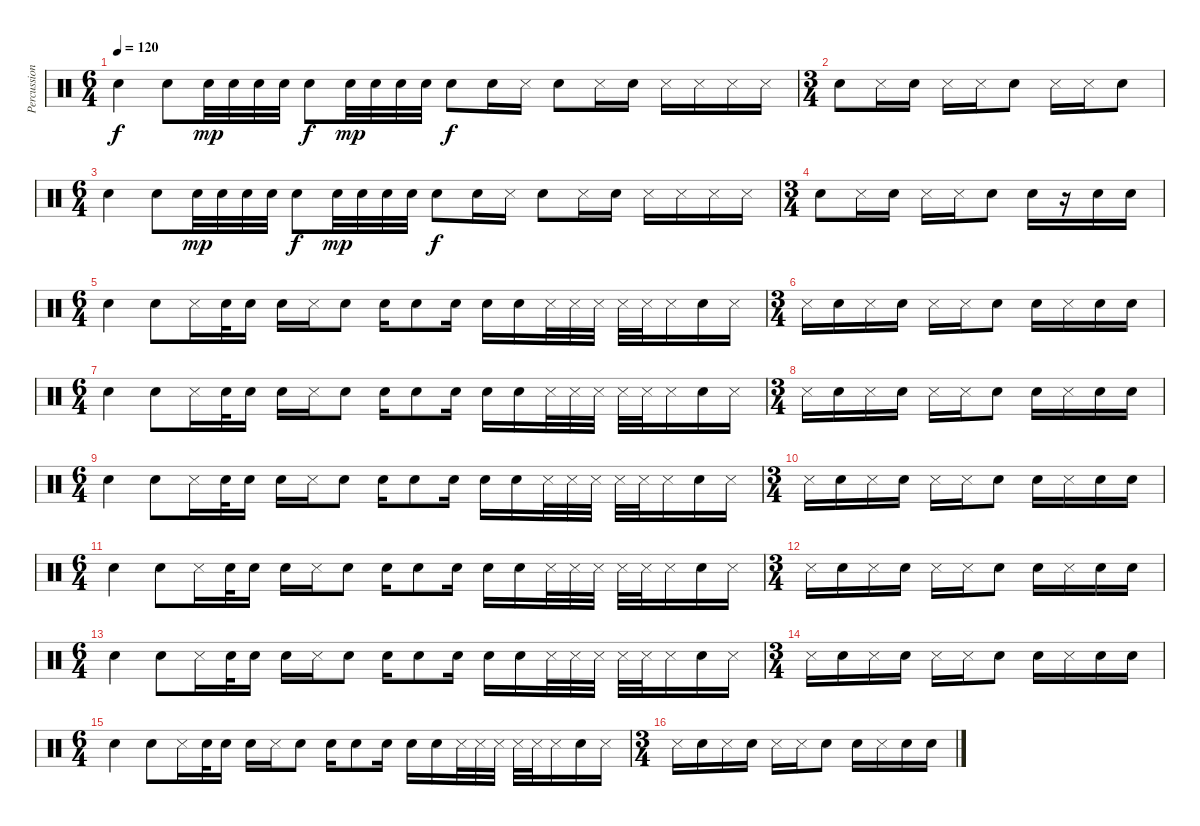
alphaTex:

\track ("Percussions" "Percussion") {instrument percussion}
\staff {score}
\articulation defaults
\ts (6 4)
\tempo 120
\clef neutral
\ks c "Snare (hit) 2".4{dy f} "Snare (hit) 2".8 "Snare (hit) 2".32{dy mp} "Snare (hit) 2".32 "Snare (hit) 2".32 "Snare (hit) 2".32 "Snare (hit) 2".8{dy f} "Snare (hit) 2".32{dy mp} "Snare (hit) 2".32 "Snare (hit) 2".32 "Snare (hit) 2".32 "Snare (hit) 2".8{dy f} "Snare (hit) 2".16 "Metronome (hit)".16 "Snare (hit) 2".8 "Metronome (hit)".16 "Snare (hit) 2".16 "Metronome (hit)".16 "Metronome (hit)".16 "Metronome (hit)".16 "Metronome (hit)".16
|
\ts (3 4)
"Snare (hit) 2".8 "Metronome (hit)".16 "Snare (hit) 2".16 "Metronome (hit)".16 "Metronome (hit)".16 "Snare (hit) 2".8 "Metronome (hit)".16 "Metronome (hit)".16 "Snare (hit) 2".8 |
\ts (6 4)
"Snare (hit) 2".4 "Snare (hit) 2".8 "Snare (hit) 2".32{dy mp} "Snare (hit) 2".32 "Snare (hit) 2".32 "Snare (hit) 2".32 "Snare (hit) 2".8{dy f} "Snare (hit) 2".32{dy mp} "Snare (hit) 2".32 "Snare (hit) 2".32 "Snare (hit) 2".32 "Snare (hit) 2".8{dy f} "Snare (hit) 2".16 "Metronome (hit)".16 "Snare (hit) 2".8 "Metronome (hit)".16 "Snare (hit) 2".16 "Metronome (hit)".16 "Metronome (hit)".16 "Metronome (hit)".16 "Metronome (hit)".16 |
\ts (3 4)
"Snare (hit) 2".8 "Metronome (hit)".16 "Snare (hit) 2".16 "Metronome (hit)".16 "Metronome (hit)".16 "Snare (hit) 2".8 "Snare (hit) 2".16 r.16 "Snare (hit) 2".16 "Snare (hit) 2".16 |
\ts (6 4)
"Snare (hit) 2".4 "Snare (hit) 2".8 "Metronome (hit)".16 "Snare (hit) 2".32 "Snare (hit) 2".16 "Snare (hit) 2".16 "Metronome (hit)".16 "Snare (hit) 2".8 "Snare (hit) 2".16 "Snare (hit) 2".8 "Snare (hit) 2".16 "Snare (hit) 2".16 "Snare (hit) 2".16 "Metronome (hit)".32 "Metronome (hit)".32 "Metronome (hit)".32 "Metronome (hit)".32 "Metronome (hit)".32 "Metronome (hit)".16 "Snare (hit) 2".16 "Metronome (hit)".16 |
\ts (3 4)
"Metronome (hit)".16 "Snare (hit) 2".16 "Metronome (hit)".16 "Snare (hit) 2".16 "Metronome (hit)".16 "Metronome (hit)".16 "Snare (hit) 2".8 "Snare (hit) 2".16 "Metronome (hit)".16 "Snare (hit) 2".16 "Snare (hit) 2".16 |
\ts (6 4)
"Snare (hit) 2".4 "Snare (hit) 2".8 "Metronome (hit)".16 "Snare (hit) 2".32 "Snare (hit) 2".16 "Snare (hit) 2".16 "Metronome (hit)".16 "Snare (hit) 2".8 "Snare (hit) 2".16 "Snare (hit) 2".8 "Snare (hit) 2".16 "Snare (hit) 2".16 "Snare (hit) 2".16 "Metronome (hit)".32 "Metronome (hit)".32 "Metronome (hit)".32 "Metronome (hit)".32 "Metronome (hit)".32 "Metronome (hit)".16 "Snare (hit) 2".16 "Metronome (hit)".16 |
\ts (3 4)
"Metronome (hit)".16 "Snare (hit) 2".16 "Metronome (hit)".16 "Snare (hit) 2".16 "Metronome (hit)".16 "Metronome (hit)".16 "Snare (hit) 2".8 "Snare (hit) 2".16 "Metronome (hit)".16 "Snare (hit) 2".16 "Snare (hit) 2".16 |
\ts (6 4)
"Snare (hit) 2".4 "Snare (hit) 2".8 "Metronome (hit)".16 "Snare (hit) 2".32 "Snare (hit) 2".16 "Snare (hit) 2".16 "Metronome (hit)".16 "Snare (hit) 2".8 "Snare (hit) 2".16 "Snare (hit) 2".8 "Snare (hit) 2".16 "Snare (hit) 2".16 "Snare (hit) 2".16 "Metronome (hit)".32 "Metronome (hit)".32 "Metronome (hit)".32 "Metronome (hit)".32 "Metronome (hit)".32 "Metronome (hit)".16 "Snare (hit) 2".16 "Metronome (hit)".16 |
\ts (3 4)
"Metronome (hit)".16 "Snare (hit) 2".16 "Metronome (hit)".16 "Snare (hit) 2".16 "Metronome (hit)".16 "Metronome (hit)".16 "Snare (hit) 2".8 "Snare (hit) 2".16 "Metronome (hit)".16 "Snare (hit) 2".16 "Snare (hit) 2".16 |
\ts (6 4)
"Snare (hit) 2".4 "Snare (hit) 2".8 "Metronome (hit)".16 "Snare (hit) 2".32 "Snare (hit) 2".16 "Snare (hit) 2".16 "Metronome (hit)".16 "Snare (hit) 2".8 "Snare (hit) 2".16 "Snare (hit) 2".8 "Snare (hit) 2".16 "Snare (hit) 2".16 "Snare (hit) 2".16 "Metronome (hit)".32 "Metronome (hit)".32 "Metronome (hit)".32 "Metronome (hit)".32 "Metronome (hit)".32 "Metronome (hit)".16 "Snare (hit) 2".16 "Metronome (hit)".16 |
\ts (3 4)
"Metronome (hit)".16 "Snare (hit) 2".16 "Metronome (hit)".16 "Snare (hit) 2".16 "Metronome (hit)".16 "Metronome (hit)".16 "Snare (hit) 2".8 "Snare (hit) 2".16 "Metronome (hit)".16 "Snare (hit) 2".16 "Snare (hit) 2".16 |
\ts (6 4)
"Snare (hit) 2".4 "Snare (hit) 2".8 "Metronome (hit)".16 "Snare (hit) 2".32 "Snare (hit) 2".16 "Snare (hit) 2".16 "Metronome (hit)".16 "Snare (hit) 2".8 "Snare (hit) 2".16 "Snare (hit) 2".8 "Snare (hit) 2".16 "Snare (hit) 2".16 "Snare (hit) 2".16 "Metronome (hit)".32 "Metronome (hit)".32 "Metronome (hit)".32 "Metronome (hit)".32 "Metronome (hit)".32 "Metronome (hit)".16 "Snare (hit) 2".16 "Metronome (hit)".16 |
\ts (3 4)
"Metronome (hit)".16 "Snare (hit) 2".16 "Metronome (hit)".16 "Snare (hit) 2".16 "Metronome (hit)".16 "Metronome (hit)".16 "Snare (hit) 2".8 "Snare (hit) 2".16 "Metronome (hit)".16 "Snare (hit) 2".16 "Snare (hit) 2".16 |
\ts (6 4)
"Snare (hit) 2".4 "Snare (hit) 2".8 "Metronome (hit)".16 "Snare (hit) 2".32 "Snare (hit) 2".16 "Snare (hit) 2".16 "Metronome (hit)".16 "Snare (hit) 2".8 "Snare (hit) 2".16 "Snare (hit) 2".8 "Snare (hit) 2".16 "Snare (hit) 2".16 "Snare (hit) 2".16 "Metronome (hit)".32 "Metronome (hit)".32 "Metronome (hit)".32 "Metronome (hit)".32 "Metronome (hit)".32 "Metronome (hit)".16 "Snare (hit) 2".16 "Metronome (hit)".16 |
\ts (3 4)
"Metronome (hit)".16 "Snare (hit) 2".16 "Metronome (hit)".16 "Snare (hit) 2".16 "Metronome (hit)".16 "Metronome (hit)".16 "Snare (hit) 2".8 "Snare (hit) 2".16 "Metronome (hit)".16 "Snare (hit) 2".16 "Snare (hit) 2".16
